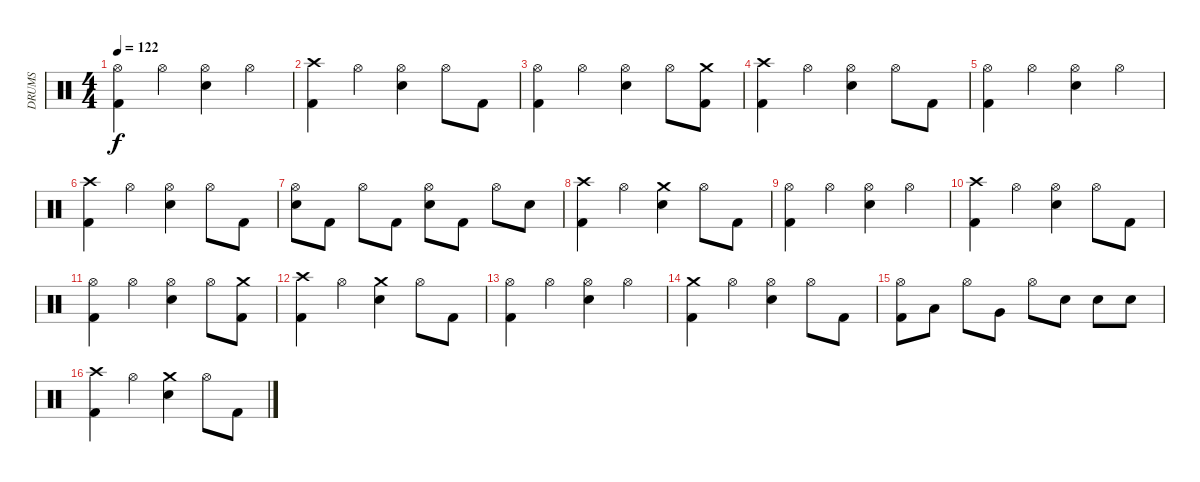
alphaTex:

\track ("DRUMS" "DRUMS") {instrument percussion}
\staff {score}
\articulation defaults
\ts (4 4)
\tempo 122
\clef neutral
\ks c
("Hi-Hat (open)" "Kick (hit) 2").4{dy f} "Hi-Hat (open)".4 ("Hi-Hat (open)" "Snare (hit) 2").4 "Hi-Hat (open)".4 |
("Crash high (hit)" "Kick (hit) 2").4 "Hi-Hat (open)".4 ("Hi-Hat (open)" "Snare (hit) 2").4 "Hi-Hat (open)".8 "Kick (hit) 2".8 |
("Hi-Hat (open)" "Kick (hit) 2").4 "Hi-Hat (open)".4 ("Hi-Hat (open)" "Snare (hit) 2").4 "Hi-Hat (open)".8 ("Crash medium (hit)" "Kick (hit) 2").8 |
("Crash high (hit)" "Kick (hit) 2").4 "Hi-Hat (open)".4 ("Hi-Hat (open)" "Snare (hit) 2").4 "Hi-Hat (open)".8 "Kick (hit) 2".8 |
("Hi-Hat (open)" "Kick (hit) 2").4 "Hi-Hat (open)".4 ("Hi-Hat (open)" "Snare (hit) 2").4 "Hi-Hat (open)".4 |
("Crash high (hit)" "Kick (hit) 2").4 "Hi-Hat (open)".4 ("Hi-Hat (open)" "Snare (hit) 2").4 "Hi-Hat (open)".8 "Kick (hit) 2".8 |
("Hi-Hat (open)" "Snare (hit) 2").8 "Kick (hit) 2".8 "Hi-Hat (open)".8 "Kick (hit) 2".8 ("Hi-Hat (open)" "Snare (hit) 2").8 "Kick (hit) 2".8 "Hi-Hat (open)".8 "Snare (hit) 2".8 |
("Crash high (hit)" "Kick (hit) 2").4 "Hi-Hat (open)".4 ("Crash medium (hit)" "Snare (hit) 2").4 "Hi-Hat (open)".8 "Kick (hit) 2".8 |
("Hi-Hat (open)" "Kick (hit) 2").4 "Hi-Hat (open)".4 ("Hi-Hat (open)" "Snare (hit) 2").4 "Hi-Hat (open)".4 |
("Crash high (hit)" "Kick (hit) 2").4 "Hi-Hat (open)".4 ("Hi-Hat (open)" "Snare (hit) 2").4 "Hi-Hat (open)".8 "Kick (hit) 2".8 |
("Hi-Hat (open)" "Kick (hit) 2").4 "Hi-Hat (open)".4 ("Hi-Hat (open)" "Snare (hit) 2").4 "Hi-Hat (open)".8 ("Crash medium (hit)" "Kick (hit) 2").8 |
("Crash high (hit)" "Kick (hit) 2").4 "Hi-Hat (open)".4 ("Crash medium (hit)" "Snare (hit) 2").4 "Hi-Hat (open)".8 "Kick (hit) 2".8 |
("Hi-Hat (open)" "Kick (hit) 2").4 "Hi-Hat (open)".4 ("Hi-Hat (open)" "Snare (hit) 2").4 "Hi-Hat (open)".4 |
("Crash medium (hit)" "Kick (hit) 2").4 "Hi-Hat (open)".4 ("Hi-Hat (open)" "Snare (hit) 2").4 "Hi-Hat (open)".8 "Kick (hit) 2".8 |
("Hi-Hat (open)" "Kick (hit) 2").8 "Low Tom (hit)".8 "Hi-Hat (open)".8 "Very Low Tom (hit)".8 "Hi-Hat (open)".8 "Snare (hit) 2".8 "Snare (hit) 2".8 "Snare (hit) 2".8 |
("Crash high (hit)" "Kick (hit) 2").4 "Hi-Hat (open)".4 ("Crash medium (hit)" "Snare (hit) 2").4 "Hi-Hat (open)".8 "Kick (hit) 2".8
